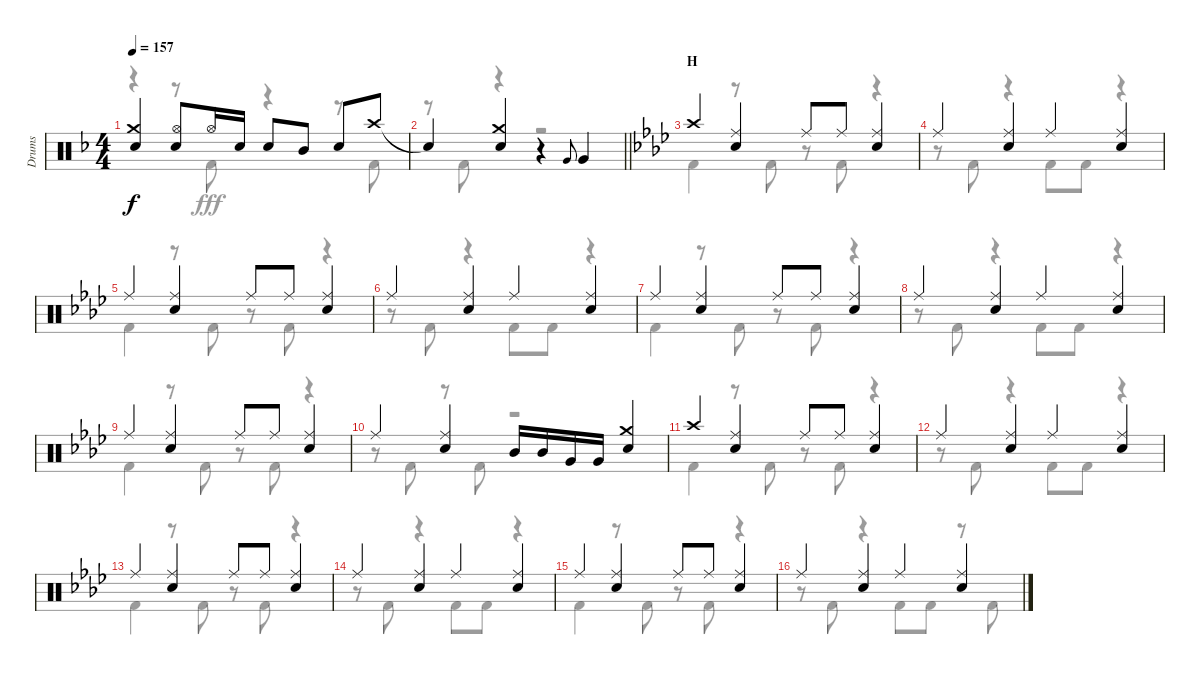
\track ("Drums" "Drums") {instrument percussion}
\staff {score}
\articulation defaults
\voice
\ts (4 4)
\tempo 157
\clef neutral
\ks f
("Crash medium (hit)" "Snare (hit) 2").4{dy f} ("Hi-Hat (open)" "Snare (hit) 2").8 "Hi-Hat (open)".16 "Snare (hit) 2".16 "Snare (hit) 2".8 "Mid Tom (hit)".8 "Snare (hit) 2".8 "Crash high (hit)".8 |
\barLineRight lightlight "Snare (hit)"{t}.4
("Crash medium (hit)" "Snare (hit) 2").4 r.4 "Very Low Tom (hit)".8{gr onbeat} "Very Low Tom (hit)".4 |
\section ("" "H")
\ks ab "Crash high (hit)".4
("Ride (middle)" "Snare (hit) 2").4 "Ride (middle)".8 "Ride (middle)".8 ("Ride (middle)" "Snare (hit) 2").4 |
"Ride (middle)".4 ("Ride (middle)" "Snare (hit) 2").4 "Ride (middle)".4 ("Ride (middle)" "Snare (hit) 2").4 |
"Ride (middle)".4 ("Ride (middle)" "Snare (hit) 2").4 "Ride (middle)".8 "Ride (middle)".8 ("Ride (middle)" "Snare (hit) 2").4 |
"Ride (middle)".4 ("Ride (middle)" "Snare (hit) 2").4 "Ride (middle)".4 ("Ride (middle)" "Snare (hit) 2").4 |
"Ride (middle)".4 ("Ride (middle)" "Snare (hit) 2").4 "Ride (middle)".8 "Ride (middle)".8 ("Ride (middle)" "Snare (hit) 2").4 |
"Ride (middle)".4 ("Ride (middle)" "Snare (hit) 2").4 "Ride (middle)".4 ("Ride (middle)" "Snare (hit) 2").4 |
"Ride (middle)".4 ("Ride (middle)" "Snare (hit) 2").4 "Ride (middle)".8 "Ride (middle)".8 ("Ride (middle)" "Snare (hit) 2").4 |
"Ride (middle)".4 ("Ride (middle)" "Snare (hit) 2").4 "Mid Tom (hit)".16 "Mid Tom (hit)".16 "Very Low Tom (hit)".16 "Very Low Tom (hit)".16 ("Crash medium (hit)" "Snare (hit) 2").4 |
"Crash high (hit)".4 ("Ride (middle)" "Snare (hit) 2").4 "Ride (middle)".8 "Ride (middle)".8 ("Ride (middle)" "Snare (hit) 2").4 |
"Ride (middle)".4 ("Ride (middle)" "Snare (hit) 2").4 "Ride (middle)".4 ("Ride (middle)" "Snare (hit) 2").4 |
"Ride (middle)".4 ("Ride (middle)" "Snare (hit) 2").4 "Ride (middle)".8 "Ride (middle)".8 ("Ride (middle)" "Snare (hit) 2").4 |
"Ride (middle)".4 ("Ride (middle)" "Snare (hit) 2").4 "Ride (middle)".4 ("Ride (middle)" "Snare (hit) 2").4 |
"Ride (middle)".4 ("Ride (middle)" "Snare (hit) 2").4 "Ride (middle)".8 "Ride (middle)".8 ("Ride (middle)" "Snare (hit) 2").4 |
"Ride (middle)".4 ("Ride (middle)" "Snare (hit) 2").4 "Ride (middle)".4 ("Ride (middle)" "Snare (hit) 2").4
\voice
\clef neutral
\ottava regular
\simile none
\ks f
r.4{dy fff} r.8 "Kick (hit) 2".8 r.4 r.8 "Kick (hit) 2".8 |
\barLineRight lightlight
r.8 "Kick (hit) 2".8 r.4 r.2 |
\ks ab "Kick (hit) 2".4
r.8 "Kick (hit) 2".8 r.8 "Kick (hit) 2".8 r.4 |
r.8 "Kick (hit) 2".8 r.4 "Kick (hit) 2".8 "Kick (hit) 2".8 r.4 |
"Kick (hit) 2".4 r.8 "Kick (hit) 2".8 r.8 "Kick (hit) 2".8 r.4 |
r.8 "Kick (hit) 2".8 r.4 "Kick (hit) 2".8 "Kick (hit) 2".8 r.4 |
"Kick (hit) 2".4 r.8 "Kick (hit) 2".8 r.8 "Kick (hit) 2".8 r.4 |
r.8 "Kick (hit) 2".8 r.4 "Kick (hit) 2".8 "Kick (hit) 2".8 r.4 |
"Kick (hit) 2".4 r.8 "Kick (hit) 2".8 r.8 "Kick (hit) 2".8 r.4 |
r.8 "Kick (hit) 2".8 r.8 "Kick (hit) 2".8 r.2 |
"Kick (hit) 2".4 r.8 "Kick (hit) 2".8 r.8 "Kick (hit) 2".8 r.4 |
r.8 "Kick (hit) 2".8 r.4 "Kick (hit) 2".8 "Kick (hit) 2".8 r.4 |
"Kick (hit) 2".4 r.8 "Kick (hit) 2".8 r.8 "Kick (hit) 2".8 r.4 |
r.8 "Kick (hit) 2".8 r.4 "Kick (hit) 2".8 "Kick (hit) 2".8 r.4 |
"Kick (hit) 2".4 r.8 "Kick (hit) 2".8 r.8 "Kick (hit) 2".8 r.4 |
r.8 "Kick (hit) 2".8 r.4 "Kick (hit) 2".8 "Kick (hit) 2".8 r.8 "Kick (hit) 2".8
